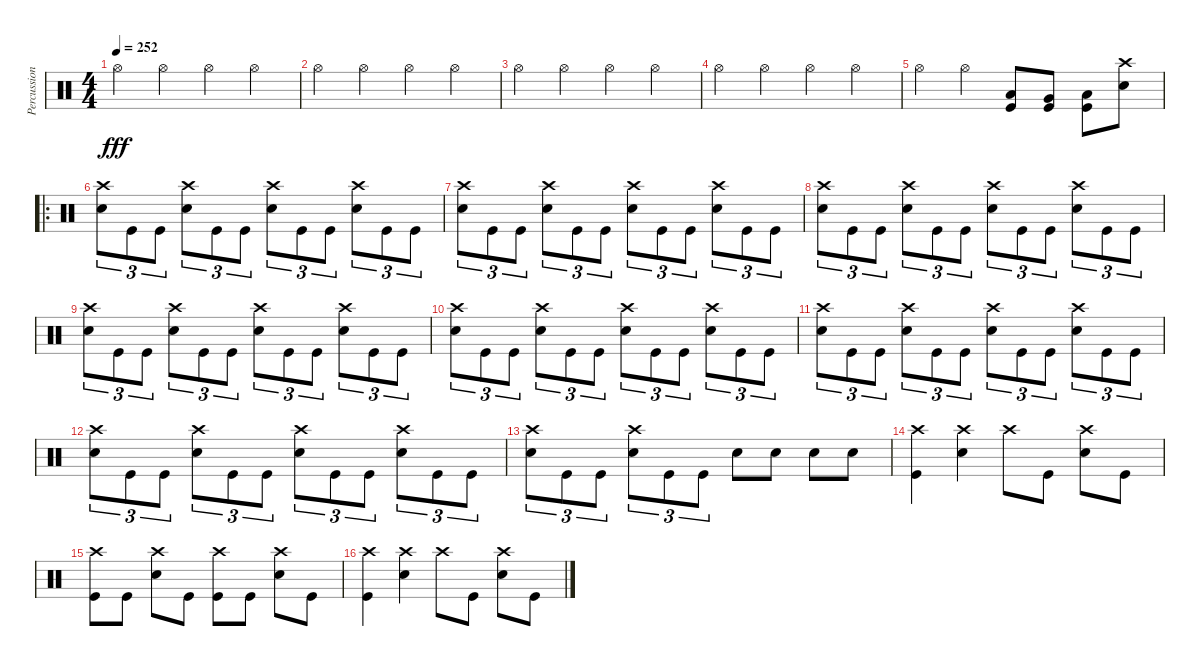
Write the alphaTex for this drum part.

\track ("Percussion" "Percussion") {instrument percussion}
\staff {score}
\articulation defaults
\ts (4 4)
\tempo 252
\clef neutral
\ks c "Hi-Hat (open)".4{dy fff} "Hi-Hat (open)".4 "Hi-Hat (open)".4 "Hi-Hat (open)".4
|
"Hi-Hat (open)".4 "Hi-Hat (open)".4 "Hi-Hat (open)".4 "Hi-Hat (open)".4 |
"Hi-Hat (open)".4 "Hi-Hat (open)".4 "Hi-Hat (open)".4 "Hi-Hat (open)".4 |
"Hi-Hat (open)".4 "Hi-Hat (open)".4 "Hi-Hat (open)".4 "Hi-Hat (open)".4 |
"Hi-Hat (open)".4 "Hi-Hat (open)".4 ("Low Tom (hit)" "Kick (hit)").8 ("Very Low Tom (hit)" "Kick (hit)").8 ("Low Floor Tom (hit)" "Kick (hit)").8 ("Crash high (hit)" "Snare (hit) 2").8 |
\ro
("Crash high (hit)" "Snare (hit) 2").8{tu (3 2)} "Kick (hit)".8{tu (3 2)} "Kick (hit)".8{tu (3 2)} ("Crash high (hit)" "Snare (hit) 2").8{tu (3 2)} "Kick (hit)".8{tu (3 2)} "Kick (hit)".8{tu (3 2)} ("Crash high (hit)" "Snare (hit) 2").8{tu (3 2)} "Kick (hit)".8{tu (3 2)} "Kick (hit)".8{tu (3 2)} ("Crash high (hit)" "Snare (hit) 2").8{tu (3 2)} "Kick (hit)".8{tu (3 2)} "Kick (hit)".8{tu (3 2)} |
("Crash high (hit)" "Snare (hit) 2").8{tu (3 2)} "Kick (hit)".8{tu (3 2)} "Kick (hit)".8{tu (3 2)} ("Crash high (hit)" "Snare (hit) 2").8{tu (3 2)} "Kick (hit)".8{tu (3 2)} "Kick (hit)".8{tu (3 2)} ("Crash high (hit)" "Snare (hit) 2").8{tu (3 2)} "Kick (hit)".8{tu (3 2)} "Kick (hit)".8{tu (3 2)} ("Crash high (hit)" "Snare (hit) 2").8{tu (3 2)} "Kick (hit)".8{tu (3 2)} "Kick (hit)".8{tu (3 2)} |
("Crash high (hit)" "Snare (hit) 2").8{tu (3 2)} "Kick (hit)".8{tu (3 2)} "Kick (hit)".8{tu (3 2)} ("Crash high (hit)" "Snare (hit) 2").8{tu (3 2)} "Kick (hit)".8{tu (3 2)} "Kick (hit)".8{tu (3 2)} ("Crash high (hit)" "Snare (hit) 2").8{tu (3 2)} "Kick (hit)".8{tu (3 2)} "Kick (hit)".8{tu (3 2)} ("Crash high (hit)" "Snare (hit) 2").8{tu (3 2)} "Kick (hit)".8{tu (3 2)} "Kick (hit)".8{tu (3 2)} |
("Crash high (hit)" "Snare (hit) 2").8{tu (3 2)} "Kick (hit)".8{tu (3 2)} "Kick (hit)".8{tu (3 2)} ("Crash high (hit)" "Snare (hit) 2").8{tu (3 2)} "Kick (hit)".8{tu (3 2)} "Kick (hit)".8{tu (3 2)} ("Crash high (hit)" "Snare (hit) 2").8{tu (3 2)} "Kick (hit)".8{tu (3 2)} "Kick (hit)".8{tu (3 2)} ("Crash high (hit)" "Snare (hit) 2").8{tu (3 2)} "Kick (hit)".8{tu (3 2)} "Kick (hit)".8{tu (3 2)} |
("Crash high (hit)" "Snare (hit) 2").8{tu (3 2)} "Kick (hit)".8{tu (3 2)} "Kick (hit)".8{tu (3 2)} ("Crash high (hit)" "Snare (hit) 2").8{tu (3 2)} "Kick (hit)".8{tu (3 2)} "Kick (hit)".8{tu (3 2)} ("Crash high (hit)" "Snare (hit) 2").8{tu (3 2)} "Kick (hit)".8{tu (3 2)} "Kick (hit)".8{tu (3 2)} ("Crash high (hit)" "Snare (hit) 2").8{tu (3 2)} "Kick (hit)".8{tu (3 2)} "Kick (hit)".8{tu (3 2)} |
("Crash high (hit)" "Snare (hit) 2").8{tu (3 2)} "Kick (hit)".8{tu (3 2)} "Kick (hit)".8{tu (3 2)} ("Crash high (hit)" "Snare (hit) 2").8{tu (3 2)} "Kick (hit)".8{tu (3 2)} "Kick (hit)".8{tu (3 2)} ("Crash high (hit)" "Snare (hit) 2").8{tu (3 2)} "Kick (hit)".8{tu (3 2)} "Kick (hit)".8{tu (3 2)} ("Crash high (hit)" "Snare (hit) 2").8{tu (3 2)} "Kick (hit)".8{tu (3 2)} "Kick (hit)".8{tu (3 2)} |
("Crash high (hit)" "Snare (hit) 2").8{tu (3 2)} "Kick (hit)".8{tu (3 2)} "Kick (hit)".8{tu (3 2)} ("Crash high (hit)" "Snare (hit) 2").8{tu (3 2)} "Kick (hit)".8{tu (3 2)} "Kick (hit)".8{tu (3 2)} ("Crash high (hit)" "Snare (hit) 2").8{tu (3 2)} "Kick (hit)".8{tu (3 2)} "Kick (hit)".8{tu (3 2)} ("Crash high (hit)" "Snare (hit) 2").8{tu (3 2)} "Kick (hit)".8{tu (3 2)} "Kick (hit)".8{tu (3 2)} |
("Crash high (hit)" "Snare (hit) 2").8{tu (3 2)} "Kick (hit)".8{tu (3 2)} "Kick (hit)".8{tu (3 2)} ("Crash high (hit)" "Snare (hit) 2").8{tu (3 2)} "Kick (hit)".8{tu (3 2)} "Kick (hit)".8{tu (3 2)} "Snare (hit) 2".8 "Snare (hit) 2".8 "Snare (hit) 2".8 "Snare (hit) 2".8 |
("Crash high (hit)" "Kick (hit)").4 ("Crash high (hit)" "Snare (hit) 2").4 "Crash high (hit)".8 "Kick (hit)".8 ("Crash high (hit)" "Snare (hit) 2").8 "Kick (hit)".8 |
("Crash high (hit)" "Kick (hit)").8 "Kick (hit)".8 ("Crash high (hit)" "Snare (hit) 2").8 "Kick (hit)".8 ("Crash high (hit)" "Kick (hit)").8 "Kick (hit)".8 ("Crash high (hit)" "Snare (hit) 2").8 "Kick (hit)".8 |
("Crash high (hit)" "Kick (hit)").4 ("Crash high (hit)" "Snare (hit) 2").4 "Crash high (hit)".8 "Kick (hit)".8 ("Crash high (hit)" "Snare (hit) 2").8 "Kick (hit)".8
